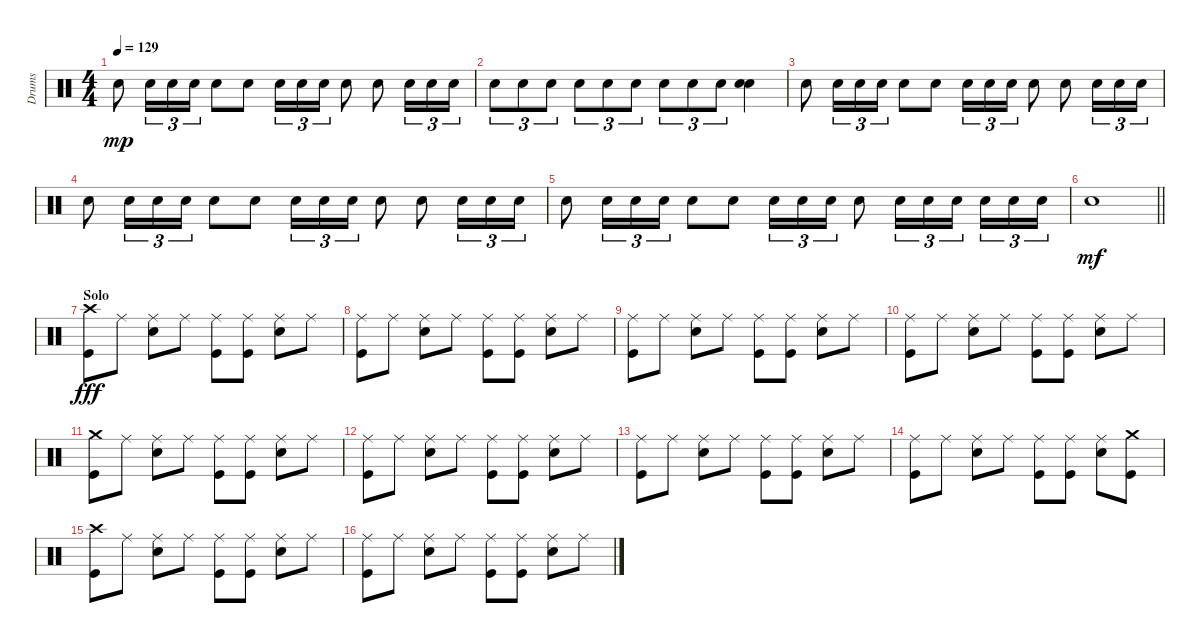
\track ("Drums" "Drums") {instrument percussion}
\staff {score}
\articulation defaults
\ts (4 4)
\tempo 129
\clef neutral
\ks c "Snare (hit) 2".8{dy mp} "Snare (hit) 2".16{tu (3 2)} "Snare (hit) 2".16{tu (3 2)} "Snare (hit) 2".16{tu (3 2)} "Snare (hit) 2".8 "Snare (hit) 2".8 "Snare (hit) 2".16{tu (3 2)} "Snare (hit) 2".16{tu (3 2)} "Snare (hit) 2".16{tu (3 2)} "Snare (hit) 2".8 "Snare (hit) 2".8 "Snare (hit) 2".16{tu (3 2)} "Snare (hit) 2".16{tu (3 2)} "Snare (hit) 2".16{tu (3 2)}
|
"Snare (hit) 2".8{tu (3 2)} "Snare (hit) 2".8{tu (3 2)} "Snare (hit) 2".8{tu (3 2)} "Snare (hit) 2".8{tu (3 2)} "Snare (hit) 2".8{tu (3 2)} "Snare (hit) 2".8{tu (3 2)} "Snare (hit) 2".8{tu (3 2)} "Snare (hit) 2".8{tu (3 2)} "Snare (hit) 2".8{tu (3 2)} ("Snare (hit) 2" "Snare (hit) 2").4 |
"Snare (hit) 2".8 "Snare (hit) 2".16{tu (3 2)} "Snare (hit) 2".16{tu (3 2)} "Snare (hit) 2".16{tu (3 2)} "Snare (hit) 2".8 "Snare (hit) 2".8 "Snare (hit) 2".16{tu (3 2)} "Snare (hit) 2".16{tu (3 2)} "Snare (hit) 2".16{tu (3 2)} "Snare (hit) 2".8 "Snare (hit) 2".8 "Snare (hit) 2".16{tu (3 2)} "Snare (hit) 2".16{tu (3 2)} "Snare (hit) 2".16{tu (3 2)} |
"Snare (hit) 2".8 "Snare (hit) 2".16{tu (3 2)} "Snare (hit) 2".16{tu (3 2)} "Snare (hit) 2".16{tu (3 2)} "Snare (hit) 2".8 "Snare (hit) 2".8 "Snare (hit) 2".16{tu (3 2)} "Snare (hit) 2".16{tu (3 2)} "Snare (hit) 2".16{tu (3 2)} "Snare (hit) 2".8 "Snare (hit) 2".8 "Snare (hit) 2".16{tu (3 2)} "Snare (hit) 2".16{tu (3 2)} "Snare (hit) 2".16{tu (3 2)} |
"Snare (hit) 2".8 "Snare (hit) 2".16{tu (3 2)} "Snare (hit) 2".16{tu (3 2)} "Snare (hit) 2".16{tu (3 2)} "Snare (hit) 2".8 "Snare (hit) 2".8 "Snare (hit) 2".16{tu (3 2)} "Snare (hit) 2".16{tu (3 2)} "Snare (hit) 2".16{tu (3 2)} "Snare (hit) 2".8 "Snare (hit) 2".16{tu (3 2)} "Snare (hit) 2".16{tu (3 2)} "Snare (hit) 2".16{tu (3 2) beam splitsecondary} "Snare (hit) 2".16{tu (3 2)} "Snare (hit) 2".16{tu (3 2)} "Snare (hit) 2".16{tu (3 2)} |
\barLineRight lightlight "Snare (hit) 2".1{dy mf}
|
\section ("" "Solo")
("Crash high (hit)" "Kick (hit)").8{dy fff} "Ride (middle)".8 ("Ride (middle)" "Snare (hit) 2").8 "Ride (middle)".8 ("Ride (middle)" "Kick (hit)").8 ("Ride (middle)" "Kick (hit)").8 ("Ride (middle)" "Snare (hit) 2").8 "Ride (middle)".8 |
("Ride (middle)" "Kick (hit)").8 "Ride (middle)".8 ("Ride (middle)" "Snare (hit) 2").8 "Ride (middle)".8 ("Ride (middle)" "Kick (hit)").8 ("Ride (middle)" "Kick (hit)").8 ("Ride (middle)" "Snare (hit) 2").8 "Ride (middle)".8 |
("Ride (middle)" "Kick (hit)").8 "Ride (middle)".8 ("Ride (middle)" "Snare (hit) 2").8 "Ride (middle)".8 ("Ride (middle)" "Kick (hit)").8 ("Ride (middle)" "Kick (hit)").8 ("Ride (middle)" "Snare (hit) 2").8 "Ride (middle)".8 |
("Ride (middle)" "Kick (hit)").8 "Ride (middle)".8 ("Ride (middle)" "Snare (hit) 2").8 "Ride (middle)".8 ("Ride (middle)" "Kick (hit)").8 ("Ride (middle)" "Kick (hit)").8 ("Ride (middle)" "Snare (hit) 2").8 "Ride (middle)".8 |
("Crash medium (hit)" "Kick (hit)").8 "Ride (middle)".8 ("Ride (middle)" "Snare (hit) 2").8 "Ride (middle)".8 ("Ride (middle)" "Kick (hit)").8 ("Ride (middle)" "Kick (hit)").8 ("Ride (middle)" "Snare (hit) 2").8 "Ride (middle)".8 |
("Ride (middle)" "Kick (hit)").8 "Ride (middle)".8 ("Ride (middle)" "Snare (hit) 2").8 "Ride (middle)".8 ("Ride (middle)" "Kick (hit)").8 ("Ride (middle)" "Kick (hit)").8 ("Ride (middle)" "Snare (hit) 2").8 "Ride (middle)".8 |
("Ride (middle)" "Kick (hit)").8 "Ride (middle)".8 ("Ride (middle)" "Snare (hit) 2").8 "Ride (middle)".8 ("Ride (middle)" "Kick (hit)").8 ("Ride (middle)" "Kick (hit)").8 ("Ride (middle)" "Snare (hit) 2").8 "Ride (middle)".8 |
("Ride (middle)" "Kick (hit)").8 "Ride (middle)".8 ("Ride (middle)" "Snare (hit) 2").8 "Ride (middle)".8 ("Ride (middle)" "Kick (hit)").8 ("Ride (middle)" "Kick (hit)").8 ("Ride (middle)" "Snare (hit) 2").8 ("Crash medium (hit)" "Kick (hit)").8 |
("Crash high (hit)" "Kick (hit)").8 "Ride (middle)".8 ("Ride (middle)" "Snare (hit) 2").8 "Ride (middle)".8 ("Ride (middle)" "Kick (hit)").8 ("Ride (middle)" "Kick (hit)").8 ("Ride (middle)" "Snare (hit) 2").8 "Ride (middle)".8 |
("Ride (middle)" "Kick (hit)").8 "Ride (middle)".8 ("Ride (middle)" "Snare (hit) 2").8 "Ride (middle)".8 ("Ride (middle)" "Kick (hit)").8 ("Ride (middle)" "Kick (hit)").8 ("Ride (middle)" "Snare (hit) 2").8 "Ride (middle)".8
